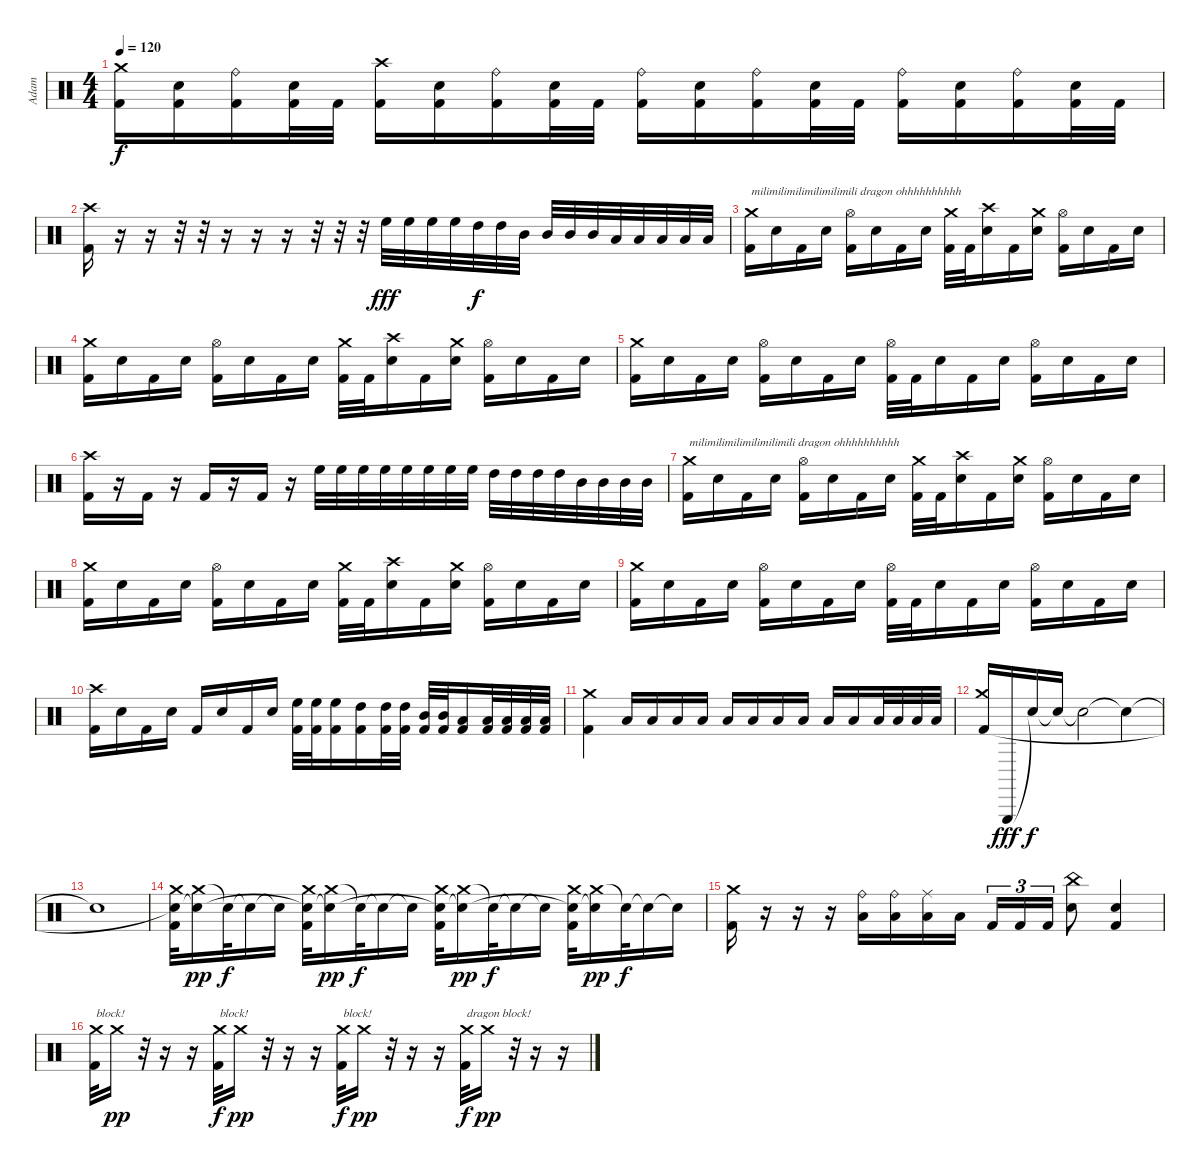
\track ("Adam" "Adam") {instrument percussion}
\staff {score}
\articulation defaults
\ts (4 4)
\tempo 120
\clef neutral
\ks c
("Crash medium (hit)" "Kick (hit) 2").16{dy f} ("Electric Snare (hit)" "Kick (hit) 2").16 ("Ride (bell)" "Kick (hit) 2").16 ("Electric Snare (hit)" "Kick (hit) 2").32 "Kick (hit) 2".32 ("Crash high (hit)" "Kick (hit) 2").16 ("Electric Snare (hit)" "Kick (hit) 2").16 ("Ride (bell)" "Kick (hit) 2").16 ("Electric Snare (hit)" "Kick (hit) 2").32 "Kick (hit) 2".32 ("Ride (bell)" "Kick (hit) 2").16 ("Electric Snare (hit)" "Kick (hit) 2").16 ("Ride (bell)" "Kick (hit) 2").16 ("Electric Snare (hit)" "Kick (hit) 2").32 "Kick (hit) 2".32 ("Ride (bell)" "Kick (hit) 2").16 ("Electric Snare (hit)" "Kick (hit) 2").16 ("Ride (bell)" "Kick (hit) 2").16 ("Electric Snare (hit)" "Kick (hit) 2").32 "Kick (hit) 2".32 |
("Crash high (hit)" "Kick (hit) 2").16 r.16 r.16 r.32 r.32 r.16 r.16 r.16 r.32 r.32 r.32 "High Floor Tom (hit)".32{dy fff} "High Floor Tom (hit)".32 "High Floor Tom (hit)".32 "High Floor Tom (hit)".32 "High Tom (hit)".32{dy f} "High Tom (hit)".32 "Mid Tom (hit)".32 "Mid Tom (hit)".32 "Mid Tom (hit)".32 "Mid Tom (hit)".32 "Low Tom (hit)".32 "Low Tom (hit)".32 "Low Tom (hit)".32 "Low Tom (hit)".32 "Low Tom (hit)".32 |
("Crash medium (hit)" "Kick (hit) 2").16{txt "milimilimilimilimilimili dragon ohhhhhhhhhh"} "Electric Snare (hit)".16 "Kick (hit) 2".16 "Electric Snare (hit)".16 ("Hi-Hat (open)" "Kick (hit) 2").16 "Electric Snare (hit)".16 "Kick (hit) 2".16 "Electric Snare (hit)".16 ("Crash medium (hit)" "Kick (hit) 2").32 "Kick (hit) 2".32 ("Crash high (hit)" "Electric Snare (hit)").16 "Kick (hit) 2".16 ("Crash medium (hit)" "Electric Snare (hit)").16 ("Hi-Hat (open)" "Kick (hit) 2").16 "Electric Snare (hit)".16 "Kick (hit) 2".16 "Electric Snare (hit)".16 |
("Crash medium (hit)" "Kick (hit) 2").16 "Electric Snare (hit)".16 "Kick (hit) 2".16 "Electric Snare (hit)".16 ("Hi-Hat (open)" "Kick (hit) 2").16 "Electric Snare (hit)".16 "Kick (hit) 2".16 "Electric Snare (hit)".16 ("Crash medium (hit)" "Kick (hit) 2").32 "Kick (hit) 2".32 ("Crash high (hit)" "Electric Snare (hit)").16 "Kick (hit) 2".16 ("Crash medium (hit)" "Electric Snare (hit)").16 ("Hi-Hat (open)" "Kick (hit) 2").16 "Electric Snare (hit)".16 "Kick (hit) 2".16 "Electric Snare (hit)".16 |
("Crash medium (hit)" "Kick (hit) 2").16 "Electric Snare (hit)".16 "Kick (hit) 2".16 "Electric Snare (hit)".16 ("Hi-Hat (open)" "Kick (hit) 2").16 "Electric Snare (hit)".16 "Kick (hit) 2".16 "Electric Snare (hit)".16 ("Hi-Hat (open)" "Kick (hit) 2").32 "Kick (hit) 2".32 "Electric Snare (hit)".16 "Kick (hit) 2".16 "Electric Snare (hit)".16 ("Hi-Hat (open)" "Kick (hit) 2").16 "Electric Snare (hit)".16 "Kick (hit) 2".16 "Electric Snare (hit)".16 |
("Crash high (hit)" "Kick (hit) 2").16 r.16 "Kick (hit) 2".16 r.16 "Kick (hit) 2".16 r.16 "Kick (hit) 2".16 r.16 "High Floor Tom (hit)".32 "High Floor Tom (hit)".32 "High Floor Tom (hit)".32 "High Floor Tom (hit)".32 "High Floor Tom (hit)".32 "High Floor Tom (hit)".32 "High Floor Tom (hit)".32 "High Floor Tom (hit)".32 "High Tom (hit)".32 "High Tom (hit)".32 "High Tom (hit)".32 "High Tom (hit)".32 "Mid Tom (hit)".32 "Mid Tom (hit)".32 "Mid Tom (hit)".32 "Mid Tom (hit)".32 |
("Crash medium (hit)" "Kick (hit) 2").16{txt "milimilimilimilimilimili dragon ohhhhhhhhhh"} "Electric Snare (hit)".16 "Kick (hit) 2".16 "Electric Snare (hit)".16 ("Hi-Hat (open)" "Kick (hit) 2").16 "Electric Snare (hit)".16 "Kick (hit) 2".16 "Electric Snare (hit)".16 ("Crash medium (hit)" "Kick (hit) 2").32 "Kick (hit) 2".32 ("Crash high (hit)" "Electric Snare (hit)").16 "Kick (hit) 2".16 ("Crash medium (hit)" "Electric Snare (hit)").16 ("Hi-Hat (open)" "Kick (hit) 2").16 "Electric Snare (hit)".16 "Kick (hit) 2".16 "Electric Snare (hit)".16 |
("Crash medium (hit)" "Kick (hit) 2").16 "Electric Snare (hit)".16 "Kick (hit) 2".16 "Electric Snare (hit)".16 ("Hi-Hat (open)" "Kick (hit) 2").16 "Electric Snare (hit)".16 "Kick (hit) 2".16 "Electric Snare (hit)".16 ("Crash medium (hit)" "Kick (hit) 2").32 "Kick (hit) 2".32 ("Crash high (hit)" "Electric Snare (hit)").16 "Kick (hit) 2".16 ("Crash medium (hit)" "Electric Snare (hit)").16 ("Hi-Hat (open)" "Kick (hit) 2").16 "Electric Snare (hit)".16 "Kick (hit) 2".16 "Electric Snare (hit)".16 |
("Crash medium (hit)" "Kick (hit) 2").16 "Electric Snare (hit)".16 "Kick (hit) 2".16 "Electric Snare (hit)".16 ("Hi-Hat (open)" "Kick (hit) 2").16 "Electric Snare (hit)".16 "Kick (hit) 2".16 "Electric Snare (hit)".16 ("Hi-Hat (open)" "Kick (hit) 2").32 "Kick (hit) 2".32 "Electric Snare (hit)".16 "Kick (hit) 2".16 "Electric Snare (hit)".16 ("Hi-Hat (open)" "Kick (hit) 2").16 "Electric Snare (hit)".16 "Kick (hit) 2".16 "Electric Snare (hit)".16 |
("Crash high (hit)" "Kick (hit) 2").16 "Electric Snare (hit)".16 "Kick (hit) 2".16 "Electric Snare (hit)".16 "Kick (hit) 2".16 "Electric Snare (hit)".16 "Kick (hit) 2".16 "Electric Snare (hit)".16 ("High Floor Tom (hit)" "Kick (hit) 2").32 ("High Floor Tom (hit)" "Kick (hit) 2").32 ("High Floor Tom (hit)" "Kick (hit) 2").16 ("High Tom (hit)" "Kick (hit) 2").16 ("High Tom (hit)" "Kick (hit) 2").32 ("High Tom (hit)" "Kick (hit) 2").32 ("Mid Tom (hit)" "Kick (hit) 2").32 ("Mid Tom (hit)" "Kick (hit) 2").32 ("Low Tom (hit)" "Kick (hit) 2").16 ("Low Tom (hit)" "Kick (hit) 2").32 ("Low Tom (hit)" "Kick (hit) 2").32 ("Low Tom (hit)" "Kick (hit) 2").32 ("Low Tom (hit)" "Kick (hit) 2").32 |
("Crash medium (hit)" "Kick (hit) 2").4 "Low Tom (hit)".16 "Low Tom (hit)".16 "Low Tom (hit)".16 "Low Tom (hit)".16 "Low Tom (hit)".16 "Low Tom (hit)".16 "Low Floor Tom (hit)".16 "Low Floor Tom (hit)".16 "Low Floor Tom (hit)".16 "Low Floor Tom (hit)".16 "Low Floor Tom (hit)".32 "Low Floor Tom (hit)".32 "Low Floor Tom (hit)".32 "Low Floor Tom (hit)".32 |
("Crash medium (hit)" "Kick (hit) 2").16 "Triangle (hit)".16{dy fff} "Snare (hit)"{t}.16{dy f} "Snare (hit)"{t}.16 "Snare (hit)"{t}.2 "Snare (hit)"{t}.4 |
"Snare (hit)"{t}.1 |
("Crash medium (hit)" "Snare (hit)"{t} "Kick (hit) 2").32 ("Crash medium (hit)" "Snare (hit)"{t}).16{dy pp} "Snare (hit)"{t}.32{dy f} "Snare (hit)"{t}.16 "Snare (hit)"{t}.16 ("Crash medium (hit)" "Snare (hit)"{t} "Kick (hit) 2").32 ("Crash medium (hit)" "Snare (hit)"{t}).16{dy pp} "Snare (hit)"{t}.32{dy f} "Snare (hit)"{t}.16 "Snare (hit)"{t}.16 ("Crash medium (hit)" "Snare (hit)"{t} "Kick (hit) 2").32 ("Crash medium (hit)" "Snare (hit)"{t}).16{dy pp} "Snare (hit)"{t}.32{dy f} "Snare (hit)"{t}.16 "Snare (hit)"{t}.16 ("Crash medium (hit)" "Snare (hit)"{t} "Kick (hit) 2").32 ("Crash medium (hit)" "Snare (hit)"{t}).16{dy pp} "Snare (hit)"{t}.32{dy f} "Snare (hit)"{t}.16 "Snare (hit)"{t}.16 |
("Crash medium (hit)" "Kick (hit) 2").16 r.16 r.16 r.16 ("Ride (bell)" "Low Tom (hit)").16 ("Ride (bell)" "Low Tom (hit)").16 ("Ride (middle)" "Low Tom (hit)").16 "Low Tom (hit)".16 "Kick (hit) 2".16{tu (3 2)} "Kick (hit) 2".16{tu (3 2)} "Kick (hit) 2".16{tu (3 2)} ("China (hit)" "Electric Snare (hit)").8 ("Electric Snare (hit)" "Kick (hit) 2").4 |
("Crash medium (hit)" "Kick (hit) 2").32{txt "block!"} "Crash medium (hit)".16{dy pp} r.32 r.16 r.16 ("Crash medium (hit)" "Kick (hit) 2").32{txt "block!" dy f} "Crash medium (hit)".16{dy pp} r.32 r.16 r.16 ("Crash medium (hit)" "Kick (hit) 2").32{txt "block!" dy f} "Crash medium (hit)".16{dy pp} r.32 r.16 r.16 ("Crash medium (hit)" "Kick (hit) 2").32{txt "dragon block!" dy f} "Crash medium (hit)".16{dy pp} r.32 r.16 r.16
